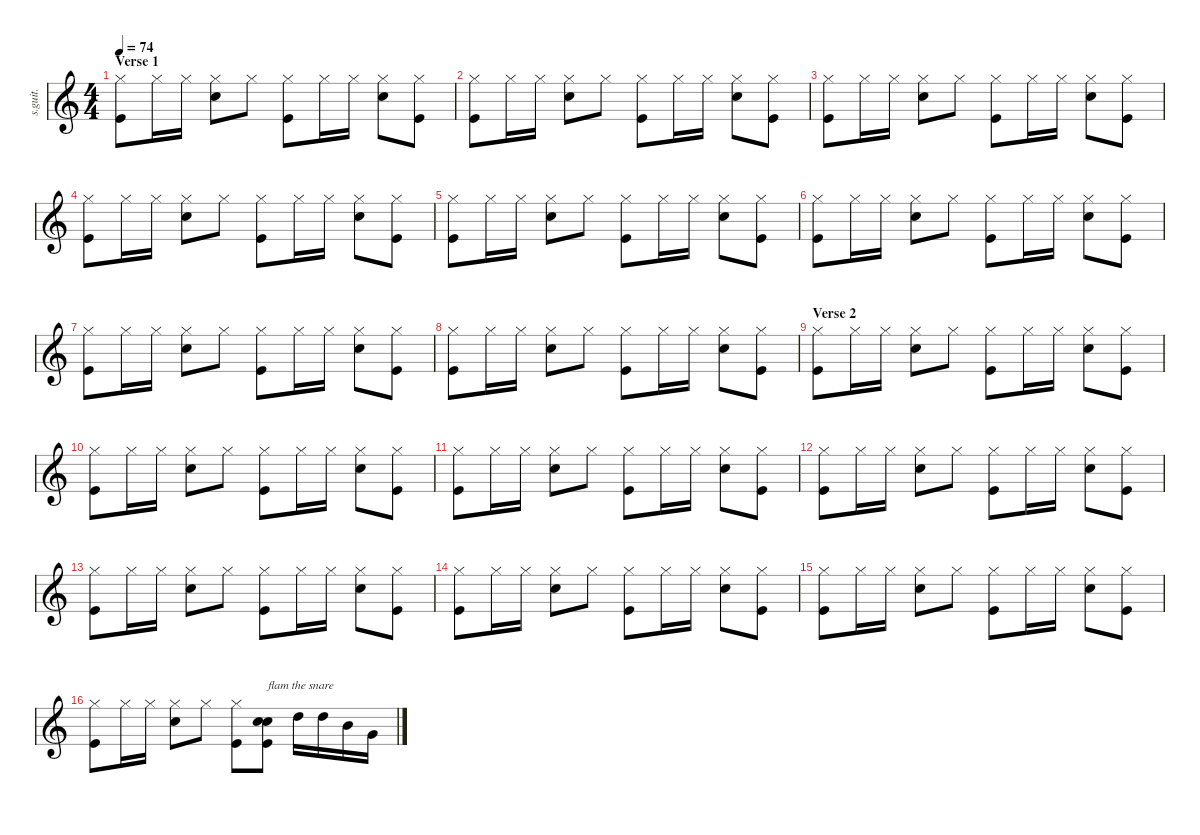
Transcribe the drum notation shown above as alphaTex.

\defaultSystemsLayout 4
\hideDynamics
\bracketExtendMode nobrackets
\track ("Don Henley - Drums" "s.guit.") {instrument percussion}
\staff {score}
\articulation defaults
\ts (4 4)
\section ("" "Verse 1")
\tempo 74
\clef g2
\ks c
("Hi-Hat (closed)" "Kick (hit)").8{lyrics (0 "") lyrics (1 "") lyrics (2 "") lyrics (3 "") lyrics (4 "") dy f} "Hi-Hat (closed)".16{lyrics (0 "") lyrics (1 "") lyrics (2 "") lyrics (3 "") lyrics (4 "")} "Hi-Hat (closed)".16{lyrics (0 "") lyrics (1 "") lyrics (2 "") lyrics (3 "") lyrics (4 "")} ("Hi-Hat (closed)" "Snare (hit) 2").8{lyrics (0 "") lyrics (1 "") lyrics (2 "") lyrics (3 "") lyrics (4 "")} "Hi-Hat (closed)".8{lyrics (0 "") lyrics (1 "") lyrics (2 "") lyrics (3 "") lyrics (4 "")} ("Hi-Hat (closed)" "Kick (hit)").8{lyrics (0 "") lyrics (1 "") lyrics (2 "") lyrics (3 "") lyrics (4 "")} "Hi-Hat (closed)".16{lyrics (0 "") lyrics (1 "") lyrics (2 "") lyrics (3 "") lyrics (4 "")} "Hi-Hat (closed)".16{lyrics (0 "") lyrics (1 "") lyrics (2 "") lyrics (3 "") lyrics (4 "")} ("Hi-Hat (closed)" "Snare (hit) 2").8{lyrics (0 "") lyrics (1 "") lyrics (2 "") lyrics (3 "") lyrics (4 "")} ("Hi-Hat (closed)" "Kick (hit)").8{lyrics (0 "") lyrics (1 "") lyrics (2 "") lyrics (3 "") lyrics (4 "")} |
("Hi-Hat (closed)" "Kick (hit)").8{lyrics (0 "") lyrics (1 "") lyrics (2 "") lyrics (3 "") lyrics (4 "")} "Hi-Hat (closed)".16{lyrics (0 "") lyrics (1 "") lyrics (2 "") lyrics (3 "") lyrics (4 "")} "Hi-Hat (closed)".16{lyrics (0 "") lyrics (1 "") lyrics (2 "") lyrics (3 "") lyrics (4 "")} ("Hi-Hat (closed)" "Snare (hit) 2").8{lyrics (0 "") lyrics (1 "") lyrics (2 "") lyrics (3 "") lyrics (4 "")} "Hi-Hat (closed)".8{lyrics (0 "") lyrics (1 "") lyrics (2 "") lyrics (3 "") lyrics (4 "")} ("Hi-Hat (closed)" "Kick (hit)").8{lyrics (0 "") lyrics (1 "") lyrics (2 "") lyrics (3 "") lyrics (4 "")} "Hi-Hat (closed)".16{lyrics (0 "") lyrics (1 "") lyrics (2 "") lyrics (3 "") lyrics (4 "")} "Hi-Hat (closed)".16{lyrics (0 "") lyrics (1 "") lyrics (2 "") lyrics (3 "") lyrics (4 "")} ("Hi-Hat (closed)" "Snare (hit) 2").8{lyrics (0 "") lyrics (1 "") lyrics (2 "") lyrics (3 "") lyrics (4 "")} ("Hi-Hat (closed)" "Kick (hit)").8{lyrics (0 "") lyrics (1 "") lyrics (2 "") lyrics (3 "") lyrics (4 "")} |
("Hi-Hat (closed)" "Kick (hit)").8{lyrics (0 "") lyrics (1 "") lyrics (2 "") lyrics (3 "") lyrics (4 "")} "Hi-Hat (closed)".16{lyrics (0 "") lyrics (1 "") lyrics (2 "") lyrics (3 "") lyrics (4 "")} "Hi-Hat (closed)".16{lyrics (0 "") lyrics (1 "") lyrics (2 "") lyrics (3 "") lyrics (4 "")} ("Hi-Hat (closed)" "Snare (hit) 2").8{lyrics (0 "") lyrics (1 "") lyrics (2 "") lyrics (3 "") lyrics (4 "")} "Hi-Hat (closed)".8{lyrics (0 "") lyrics (1 "") lyrics (2 "") lyrics (3 "") lyrics (4 "")} ("Hi-Hat (closed)" "Kick (hit)").8{lyrics (0 "") lyrics (1 "") lyrics (2 "") lyrics (3 "") lyrics (4 "")} "Hi-Hat (closed)".16{lyrics (0 "") lyrics (1 "") lyrics (2 "") lyrics (3 "") lyrics (4 "")} "Hi-Hat (closed)".16{lyrics (0 "") lyrics (1 "") lyrics (2 "") lyrics (3 "") lyrics (4 "")} ("Hi-Hat (closed)" "Snare (hit) 2").8{lyrics (0 "") lyrics (1 "") lyrics (2 "") lyrics (3 "") lyrics (4 "")} ("Hi-Hat (closed)" "Kick (hit)").8{lyrics (0 "") lyrics (1 "") lyrics (2 "") lyrics (3 "") lyrics (4 "")} |
("Hi-Hat (closed)" "Kick (hit)").8{lyrics (0 "") lyrics (1 "") lyrics (2 "") lyrics (3 "") lyrics (4 "")} "Hi-Hat (closed)".16{lyrics (0 "") lyrics (1 "") lyrics (2 "") lyrics (3 "") lyrics (4 "")} "Hi-Hat (closed)".16{lyrics (0 "") lyrics (1 "") lyrics (2 "") lyrics (3 "") lyrics (4 "")} ("Hi-Hat (closed)" "Snare (hit) 2").8{lyrics (0 "") lyrics (1 "") lyrics (2 "") lyrics (3 "") lyrics (4 "")} "Hi-Hat (closed)".8{lyrics (0 "") lyrics (1 "") lyrics (2 "") lyrics (3 "") lyrics (4 "")} ("Hi-Hat (closed)" "Kick (hit)").8{lyrics (0 "") lyrics (1 "") lyrics (2 "") lyrics (3 "") lyrics (4 "")} "Hi-Hat (closed)".16{lyrics (0 "") lyrics (1 "") lyrics (2 "") lyrics (3 "") lyrics (4 "")} "Hi-Hat (closed)".16{lyrics (0 "") lyrics (1 "") lyrics (2 "") lyrics (3 "") lyrics (4 "")} ("Hi-Hat (closed)" "Snare (hit) 2").8{lyrics (0 "") lyrics (1 "") lyrics (2 "") lyrics (3 "") lyrics (4 "")} ("Hi-Hat (closed)" "Kick (hit)").8{lyrics (0 "") lyrics (1 "") lyrics (2 "") lyrics (3 "") lyrics (4 "")} |
("Hi-Hat (closed)" "Kick (hit)").8{lyrics (0 "") lyrics (1 "") lyrics (2 "") lyrics (3 "") lyrics (4 "")} "Hi-Hat (closed)".16{lyrics (0 "") lyrics (1 "") lyrics (2 "") lyrics (3 "") lyrics (4 "")} "Hi-Hat (closed)".16{lyrics (0 "") lyrics (1 "") lyrics (2 "") lyrics (3 "") lyrics (4 "")} ("Hi-Hat (closed)" "Snare (hit) 2").8{lyrics (0 "") lyrics (1 "") lyrics (2 "") lyrics (3 "") lyrics (4 "")} "Hi-Hat (closed)".8{lyrics (0 "") lyrics (1 "") lyrics (2 "") lyrics (3 "") lyrics (4 "")} ("Hi-Hat (closed)" "Kick (hit)").8{lyrics (0 "") lyrics (1 "") lyrics (2 "") lyrics (3 "") lyrics (4 "")} "Hi-Hat (closed)".16{lyrics (0 "") lyrics (1 "") lyrics (2 "") lyrics (3 "") lyrics (4 "")} "Hi-Hat (closed)".16{lyrics (0 "") lyrics (1 "") lyrics (2 "") lyrics (3 "") lyrics (4 "")} ("Hi-Hat (closed)" "Snare (hit) 2").8{lyrics (0 "") lyrics (1 "") lyrics (2 "") lyrics (3 "") lyrics (4 "")} ("Hi-Hat (closed)" "Kick (hit)").8{lyrics (0 "") lyrics (1 "") lyrics (2 "") lyrics (3 "") lyrics (4 "")} |
("Hi-Hat (closed)" "Kick (hit)").8{lyrics (0 "") lyrics (1 "") lyrics (2 "") lyrics (3 "") lyrics (4 "")} "Hi-Hat (closed)".16{lyrics (0 "") lyrics (1 "") lyrics (2 "") lyrics (3 "") lyrics (4 "")} "Hi-Hat (closed)".16{lyrics (0 "") lyrics (1 "") lyrics (2 "") lyrics (3 "") lyrics (4 "")} ("Hi-Hat (closed)" "Snare (hit) 2").8{lyrics (0 "") lyrics (1 "") lyrics (2 "") lyrics (3 "") lyrics (4 "")} "Hi-Hat (closed)".8{lyrics (0 "") lyrics (1 "") lyrics (2 "") lyrics (3 "") lyrics (4 "")} ("Hi-Hat (closed)" "Kick (hit)").8{lyrics (0 "") lyrics (1 "") lyrics (2 "") lyrics (3 "") lyrics (4 "")} "Hi-Hat (closed)".16{lyrics (0 "") lyrics (1 "") lyrics (2 "") lyrics (3 "") lyrics (4 "")} "Hi-Hat (closed)".16{lyrics (0 "") lyrics (1 "") lyrics (2 "") lyrics (3 "") lyrics (4 "")} ("Hi-Hat (closed)" "Snare (hit) 2").8{lyrics (0 "") lyrics (1 "") lyrics (2 "") lyrics (3 "") lyrics (4 "")} ("Hi-Hat (closed)" "Kick (hit)").8{lyrics (0 "") lyrics (1 "") lyrics (2 "") lyrics (3 "") lyrics (4 "")} |
("Hi-Hat (closed)" "Kick (hit)").8{lyrics (0 "") lyrics (1 "") lyrics (2 "") lyrics (3 "") lyrics (4 "")} "Hi-Hat (closed)".16{lyrics (0 "") lyrics (1 "") lyrics (2 "") lyrics (3 "") lyrics (4 "")} "Hi-Hat (closed)".16{lyrics (0 "") lyrics (1 "") lyrics (2 "") lyrics (3 "") lyrics (4 "")} ("Hi-Hat (closed)" "Snare (hit) 2").8{lyrics (0 "") lyrics (1 "") lyrics (2 "") lyrics (3 "") lyrics (4 "")} "Hi-Hat (closed)".8{lyrics (0 "") lyrics (1 "") lyrics (2 "") lyrics (3 "") lyrics (4 "")} ("Hi-Hat (closed)" "Kick (hit)").8{lyrics (0 "") lyrics (1 "") lyrics (2 "") lyrics (3 "") lyrics (4 "")} "Hi-Hat (closed)".16{lyrics (0 "") lyrics (1 "") lyrics (2 "") lyrics (3 "") lyrics (4 "")} "Hi-Hat (closed)".16{lyrics (0 "") lyrics (1 "") lyrics (2 "") lyrics (3 "") lyrics (4 "")} ("Hi-Hat (closed)" "Snare (hit) 2").8{lyrics (0 "") lyrics (1 "") lyrics (2 "") lyrics (3 "") lyrics (4 "")} ("Hi-Hat (closed)" "Kick (hit)").8{lyrics (0 "") lyrics (1 "") lyrics (2 "") lyrics (3 "") lyrics (4 "")} |
("Hi-Hat (closed)" "Kick (hit)").8{lyrics (0 "") lyrics (1 "") lyrics (2 "") lyrics (3 "") lyrics (4 "")} "Hi-Hat (closed)".16{lyrics (0 "") lyrics (1 "") lyrics (2 "") lyrics (3 "") lyrics (4 "")} "Hi-Hat (closed)".16{lyrics (0 "") lyrics (1 "") lyrics (2 "") lyrics (3 "") lyrics (4 "")} ("Hi-Hat (closed)" "Snare (hit) 2").8{lyrics (0 "") lyrics (1 "") lyrics (2 "") lyrics (3 "") lyrics (4 "")} "Hi-Hat (closed)".8{lyrics (0 "") lyrics (1 "") lyrics (2 "") lyrics (3 "") lyrics (4 "")} ("Hi-Hat (closed)" "Kick (hit)").8{lyrics (0 "") lyrics (1 "") lyrics (2 "") lyrics (3 "") lyrics (4 "")} "Hi-Hat (closed)".16{lyrics (0 "") lyrics (1 "") lyrics (2 "") lyrics (3 "") lyrics (4 "")} "Hi-Hat (closed)".16{lyrics (0 "") lyrics (1 "") lyrics (2 "") lyrics (3 "") lyrics (4 "")} ("Hi-Hat (closed)" "Snare (hit) 2").8{lyrics (0 "") lyrics (1 "") lyrics (2 "") lyrics (3 "") lyrics (4 "")} ("Hi-Hat (closed)" "Kick (hit)").8{lyrics (0 "") lyrics (1 "") lyrics (2 "") lyrics (3 "") lyrics (4 "")} |
\section ("" "Verse 2")
("Hi-Hat (closed)" "Kick (hit)").8{lyrics (0 "") lyrics (1 "") lyrics (2 "") lyrics (3 "") lyrics (4 "")} "Hi-Hat (closed)".16{lyrics (0 "") lyrics (1 "") lyrics (2 "") lyrics (3 "") lyrics (4 "")} "Hi-Hat (closed)".16{lyrics (0 "") lyrics (1 "") lyrics (2 "") lyrics (3 "") lyrics (4 "")} ("Hi-Hat (closed)" "Snare (hit) 2").8{lyrics (0 "") lyrics (1 "") lyrics (2 "") lyrics (3 "") lyrics (4 "")} "Hi-Hat (closed)".8{lyrics (0 "") lyrics (1 "") lyrics (2 "") lyrics (3 "") lyrics (4 "")} ("Hi-Hat (closed)" "Kick (hit)").8{lyrics (0 "") lyrics (1 "") lyrics (2 "") lyrics (3 "") lyrics (4 "")} "Hi-Hat (closed)".16{lyrics (0 "") lyrics (1 "") lyrics (2 "") lyrics (3 "") lyrics (4 "")} "Hi-Hat (closed)".16{lyrics (0 "") lyrics (1 "") lyrics (2 "") lyrics (3 "") lyrics (4 "")} ("Hi-Hat (closed)" "Snare (hit) 2").8{lyrics (0 "") lyrics (1 "") lyrics (2 "") lyrics (3 "") lyrics (4 "")} ("Hi-Hat (closed)" "Kick (hit)").8{lyrics (0 "") lyrics (1 "") lyrics (2 "") lyrics (3 "") lyrics (4 "")} |
("Hi-Hat (closed)" "Kick (hit)").8{lyrics (0 "") lyrics (1 "") lyrics (2 "") lyrics (3 "") lyrics (4 "")} "Hi-Hat (closed)".16{lyrics (0 "") lyrics (1 "") lyrics (2 "") lyrics (3 "") lyrics (4 "")} "Hi-Hat (closed)".16{lyrics (0 "") lyrics (1 "") lyrics (2 "") lyrics (3 "") lyrics (4 "")} ("Hi-Hat (closed)" "Snare (hit) 2").8{lyrics (0 "") lyrics (1 "") lyrics (2 "") lyrics (3 "") lyrics (4 "")} "Hi-Hat (closed)".8{lyrics (0 "") lyrics (1 "") lyrics (2 "") lyrics (3 "") lyrics (4 "")} ("Hi-Hat (closed)" "Kick (hit)").8{lyrics (0 "") lyrics (1 "") lyrics (2 "") lyrics (3 "") lyrics (4 "")} "Hi-Hat (closed)".16{lyrics (0 "") lyrics (1 "") lyrics (2 "") lyrics (3 "") lyrics (4 "")} "Hi-Hat (closed)".16{lyrics (0 "") lyrics (1 "") lyrics (2 "") lyrics (3 "") lyrics (4 "")} ("Hi-Hat (closed)" "Snare (hit) 2").8{lyrics (0 "") lyrics (1 "") lyrics (2 "") lyrics (3 "") lyrics (4 "")} ("Hi-Hat (closed)" "Kick (hit)").8{lyrics (0 "") lyrics (1 "") lyrics (2 "") lyrics (3 "") lyrics (4 "")} |
("Hi-Hat (closed)" "Kick (hit)").8{lyrics (0 "") lyrics (1 "") lyrics (2 "") lyrics (3 "") lyrics (4 "")} "Hi-Hat (closed)".16{lyrics (0 "") lyrics (1 "") lyrics (2 "") lyrics (3 "") lyrics (4 "")} "Hi-Hat (closed)".16{lyrics (0 "") lyrics (1 "") lyrics (2 "") lyrics (3 "") lyrics (4 "")} ("Hi-Hat (closed)" "Snare (hit) 2").8{lyrics (0 "") lyrics (1 "") lyrics (2 "") lyrics (3 "") lyrics (4 "")} "Hi-Hat (closed)".8{lyrics (0 "") lyrics (1 "") lyrics (2 "") lyrics (3 "") lyrics (4 "")} ("Hi-Hat (closed)" "Kick (hit)").8{lyrics (0 "") lyrics (1 "") lyrics (2 "") lyrics (3 "") lyrics (4 "")} "Hi-Hat (closed)".16{lyrics (0 "") lyrics (1 "") lyrics (2 "") lyrics (3 "") lyrics (4 "")} "Hi-Hat (closed)".16{lyrics (0 "") lyrics (1 "") lyrics (2 "") lyrics (3 "") lyrics (4 "")} ("Hi-Hat (closed)" "Snare (hit) 2").8{lyrics (0 "") lyrics (1 "") lyrics (2 "") lyrics (3 "") lyrics (4 "")} ("Hi-Hat (closed)" "Kick (hit)").8{lyrics (0 "") lyrics (1 "") lyrics (2 "") lyrics (3 "") lyrics (4 "")} |
("Hi-Hat (closed)" "Kick (hit)").8{lyrics (0 "") lyrics (1 "") lyrics (2 "") lyrics (3 "") lyrics (4 "")} "Hi-Hat (closed)".16{lyrics (0 "") lyrics (1 "") lyrics (2 "") lyrics (3 "") lyrics (4 "")} "Hi-Hat (closed)".16{lyrics (0 "") lyrics (1 "") lyrics (2 "") lyrics (3 "") lyrics (4 "")} ("Hi-Hat (closed)" "Snare (hit) 2").8{lyrics (0 "") lyrics (1 "") lyrics (2 "") lyrics (3 "") lyrics (4 "")} "Hi-Hat (closed)".8{lyrics (0 "") lyrics (1 "") lyrics (2 "") lyrics (3 "") lyrics (4 "")} ("Hi-Hat (closed)" "Kick (hit)").8{lyrics (0 "") lyrics (1 "") lyrics (2 "") lyrics (3 "") lyrics (4 "")} "Hi-Hat (closed)".16{lyrics (0 "") lyrics (1 "") lyrics (2 "") lyrics (3 "") lyrics (4 "")} "Hi-Hat (closed)".16{lyrics (0 "") lyrics (1 "") lyrics (2 "") lyrics (3 "") lyrics (4 "")} ("Hi-Hat (closed)" "Snare (hit) 2").8{lyrics (0 "") lyrics (1 "") lyrics (2 "") lyrics (3 "") lyrics (4 "")} ("Hi-Hat (closed)" "Kick (hit)").8{lyrics (0 "") lyrics (1 "") lyrics (2 "") lyrics (3 "") lyrics (4 "")} |
("Hi-Hat (closed)" "Kick (hit)").8{lyrics (0 "") lyrics (1 "") lyrics (2 "") lyrics (3 "") lyrics (4 "")} "Hi-Hat (closed)".16{lyrics (0 "") lyrics (1 "") lyrics (2 "") lyrics (3 "") lyrics (4 "")} "Hi-Hat (closed)".16{lyrics (0 "") lyrics (1 "") lyrics (2 "") lyrics (3 "") lyrics (4 "")} ("Hi-Hat (closed)" "Snare (hit) 2").8{lyrics (0 "") lyrics (1 "") lyrics (2 "") lyrics (3 "") lyrics (4 "")} "Hi-Hat (closed)".8{lyrics (0 "") lyrics (1 "") lyrics (2 "") lyrics (3 "") lyrics (4 "")} ("Hi-Hat (closed)" "Kick (hit)").8{lyrics (0 "") lyrics (1 "") lyrics (2 "") lyrics (3 "") lyrics (4 "")} "Hi-Hat (closed)".16{lyrics (0 "") lyrics (1 "") lyrics (2 "") lyrics (3 "") lyrics (4 "")} "Hi-Hat (closed)".16{lyrics (0 "") lyrics (1 "") lyrics (2 "") lyrics (3 "") lyrics (4 "")} ("Hi-Hat (closed)" "Snare (hit) 2").8{lyrics (0 "") lyrics (1 "") lyrics (2 "") lyrics (3 "") lyrics (4 "")} ("Hi-Hat (closed)" "Kick (hit)").8{lyrics (0 "") lyrics (1 "") lyrics (2 "") lyrics (3 "") lyrics (4 "")} |
("Hi-Hat (closed)" "Kick (hit)").8{lyrics (0 "") lyrics (1 "") lyrics (2 "") lyrics (3 "") lyrics (4 "")} "Hi-Hat (closed)".16{lyrics (0 "") lyrics (1 "") lyrics (2 "") lyrics (3 "") lyrics (4 "")} "Hi-Hat (closed)".16{lyrics (0 "") lyrics (1 "") lyrics (2 "") lyrics (3 "") lyrics (4 "")} ("Hi-Hat (closed)" "Snare (hit) 2").8{lyrics (0 "") lyrics (1 "") lyrics (2 "") lyrics (3 "") lyrics (4 "")} "Hi-Hat (closed)".8{lyrics (0 "") lyrics (1 "") lyrics (2 "") lyrics (3 "") lyrics (4 "")} ("Hi-Hat (closed)" "Kick (hit)").8{lyrics (0 "") lyrics (1 "") lyrics (2 "") lyrics (3 "") lyrics (4 "")} "Hi-Hat (closed)".16{lyrics (0 "") lyrics (1 "") lyrics (2 "") lyrics (3 "") lyrics (4 "")} "Hi-Hat (closed)".16{lyrics (0 "") lyrics (1 "") lyrics (2 "") lyrics (3 "") lyrics (4 "")} ("Hi-Hat (closed)" "Snare (hit) 2").8{lyrics (0 "") lyrics (1 "") lyrics (2 "") lyrics (3 "") lyrics (4 "")} ("Hi-Hat (closed)" "Kick (hit)").8{lyrics (0 "") lyrics (1 "") lyrics (2 "") lyrics (3 "") lyrics (4 "")} |
("Hi-Hat (closed)" "Kick (hit)").8{lyrics (0 "") lyrics (1 "") lyrics (2 "") lyrics (3 "") lyrics (4 "")} "Hi-Hat (closed)".16{lyrics (0 "") lyrics (1 "") lyrics (2 "") lyrics (3 "") lyrics (4 "")} "Hi-Hat (closed)".16{lyrics (0 "") lyrics (1 "") lyrics (2 "") lyrics (3 "") lyrics (4 "")} ("Hi-Hat (closed)" "Snare (hit) 2").8{lyrics (0 "") lyrics (1 "") lyrics (2 "") lyrics (3 "") lyrics (4 "")} "Hi-Hat (closed)".8{lyrics (0 "") lyrics (1 "") lyrics (2 "") lyrics (3 "") lyrics (4 "")} ("Hi-Hat (closed)" "Kick (hit)").8{lyrics (0 "") lyrics (1 "") lyrics (2 "") lyrics (3 "") lyrics (4 "")} "Hi-Hat (closed)".16{lyrics (0 "") lyrics (1 "") lyrics (2 "") lyrics (3 "") lyrics (4 "")} "Hi-Hat (closed)".16{lyrics (0 "") lyrics (1 "") lyrics (2 "") lyrics (3 "") lyrics (4 "")} ("Hi-Hat (closed)" "Snare (hit) 2").8{lyrics (0 "") lyrics (1 "") lyrics (2 "") lyrics (3 "") lyrics (4 "")} ("Hi-Hat (closed)" "Kick (hit)").8{lyrics (0 "") lyrics (1 "") lyrics (2 "") lyrics (3 "") lyrics (4 "")} |
("Hi-Hat (closed)" "Kick (hit)").8{lyrics (0 "") lyrics (1 "") lyrics (2 "") lyrics (3 "") lyrics (4 "")} "Hi-Hat (closed)".16{lyrics (0 "") lyrics (1 "") lyrics (2 "") lyrics (3 "") lyrics (4 "")} "Hi-Hat (closed)".16{lyrics (0 "") lyrics (1 "") lyrics (2 "") lyrics (3 "") lyrics (4 "")} ("Hi-Hat (closed)" "Snare (hit) 2").8{lyrics (0 "") lyrics (1 "") lyrics (2 "") lyrics (3 "") lyrics (4 "")} "Hi-Hat (closed)".8{lyrics (0 "") lyrics (1 "") lyrics (2 "") lyrics (3 "") lyrics (4 "")} ("Hi-Hat (closed)" "Kick (hit)").8{lyrics (0 "") lyrics (1 "") lyrics (2 "") lyrics (3 "") lyrics (4 "")} ("Snare (hit) 2" "Snare (hit) 2" "Kick (hit)").8{txt "flam the snare" lyrics (0 "") lyrics (1 "") lyrics (2 "") lyrics (3 "") lyrics (4 "")} "High Tom (hit)".16{lyrics (0 "") lyrics (1 "") lyrics (2 "") lyrics (3 "") lyrics (4 "")} "High Tom (hit)".16{lyrics (0 "") lyrics (1 "") lyrics (2 "") lyrics (3 "") lyrics (4 "")} "Mid Tom (hit)".16{lyrics (0 "") lyrics (1 "") lyrics (2 "") lyrics (3 "") lyrics (4 "")} "Very Low Tom (hit)".16{lyrics (0 "") lyrics (1 "") lyrics (2 "") lyrics (3 "") lyrics (4 "")}
